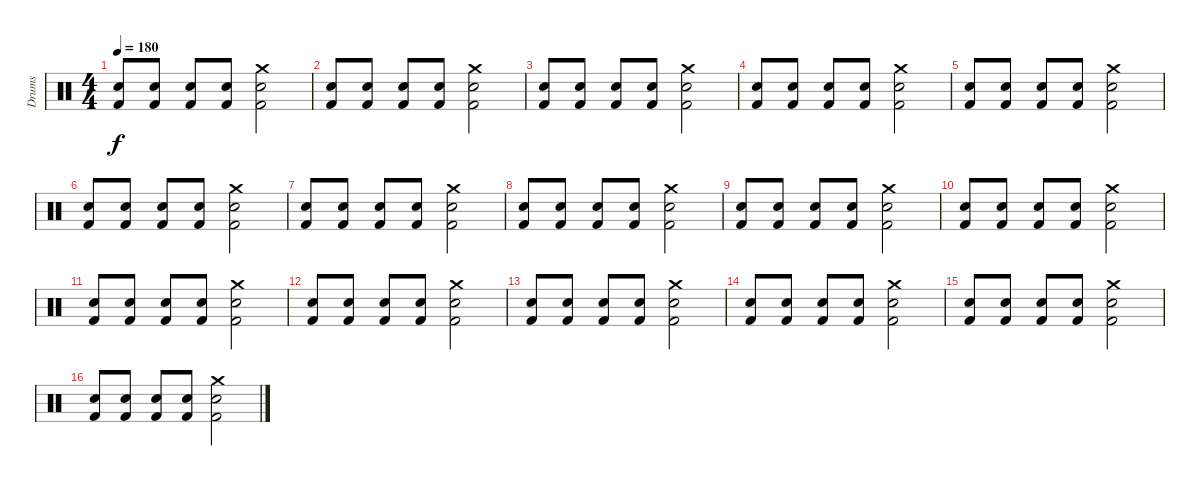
\track ("Drums" "Drums") {instrument percussion}
\staff {score}
\articulation defaults
\ts (4 4)
\tempo 180
\clef neutral
\ks c
("Snare (hit) 2" "Kick (hit) 2").8{dy f} ("Snare (hit) 2" "Kick (hit) 2").8 ("Snare (hit) 2" "Kick (hit) 2").8 ("Snare (hit) 2" "Kick (hit) 2").8 ("Snare (hit) 2" "Crash medium (hit)" "Kick (hit) 2").2 |
("Snare (hit) 2" "Kick (hit) 2").8 ("Snare (hit) 2" "Kick (hit) 2").8 ("Snare (hit) 2" "Kick (hit) 2").8 ("Snare (hit) 2" "Kick (hit) 2").8 ("Snare (hit) 2" "Crash medium (hit)" "Kick (hit) 2").2 |
("Snare (hit) 2" "Kick (hit) 2").8 ("Snare (hit) 2" "Kick (hit) 2").8 ("Snare (hit) 2" "Kick (hit) 2").8 ("Snare (hit) 2" "Kick (hit) 2").8 ("Snare (hit) 2" "Crash medium (hit)" "Kick (hit) 2").2 |
("Snare (hit) 2" "Kick (hit) 2").8 ("Snare (hit) 2" "Kick (hit) 2").8 ("Snare (hit) 2" "Kick (hit) 2").8 ("Snare (hit) 2" "Kick (hit) 2").8 ("Snare (hit) 2" "Crash medium (hit)" "Kick (hit) 2").2 |
("Snare (hit) 2" "Kick (hit) 2").8 ("Snare (hit) 2" "Kick (hit) 2").8 ("Snare (hit) 2" "Kick (hit) 2").8 ("Snare (hit) 2" "Kick (hit) 2").8 ("Snare (hit) 2" "Crash medium (hit)" "Kick (hit) 2").2 |
("Snare (hit) 2" "Kick (hit) 2").8 ("Snare (hit) 2" "Kick (hit) 2").8 ("Snare (hit) 2" "Kick (hit) 2").8 ("Snare (hit) 2" "Kick (hit) 2").8 ("Snare (hit) 2" "Crash medium (hit)" "Kick (hit) 2").2 |
("Snare (hit) 2" "Kick (hit) 2").8 ("Snare (hit) 2" "Kick (hit) 2").8 ("Snare (hit) 2" "Kick (hit) 2").8 ("Snare (hit) 2" "Kick (hit) 2").8 ("Snare (hit) 2" "Crash medium (hit)" "Kick (hit) 2").2 |
("Snare (hit) 2" "Kick (hit) 2").8 ("Snare (hit) 2" "Kick (hit) 2").8 ("Snare (hit) 2" "Kick (hit) 2").8 ("Snare (hit) 2" "Kick (hit) 2").8 ("Snare (hit) 2" "Crash medium (hit)" "Kick (hit) 2").2 |
("Snare (hit) 2" "Kick (hit) 2").8 ("Snare (hit) 2" "Kick (hit) 2").8 ("Snare (hit) 2" "Kick (hit) 2").8 ("Snare (hit) 2" "Kick (hit) 2").8 ("Snare (hit) 2" "Crash medium (hit)" "Kick (hit) 2").2 |
("Snare (hit) 2" "Kick (hit) 2").8 ("Snare (hit) 2" "Kick (hit) 2").8 ("Snare (hit) 2" "Kick (hit) 2").8 ("Snare (hit) 2" "Kick (hit) 2").8 ("Snare (hit) 2" "Crash medium (hit)" "Kick (hit) 2").2 |
("Snare (hit) 2" "Kick (hit) 2").8 ("Snare (hit) 2" "Kick (hit) 2").8 ("Snare (hit) 2" "Kick (hit) 2").8 ("Snare (hit) 2" "Kick (hit) 2").8 ("Snare (hit) 2" "Crash medium (hit)" "Kick (hit) 2").2 |
("Snare (hit) 2" "Kick (hit) 2").8 ("Snare (hit) 2" "Kick (hit) 2").8 ("Snare (hit) 2" "Kick (hit) 2").8 ("Snare (hit) 2" "Kick (hit) 2").8 ("Snare (hit) 2" "Crash medium (hit)" "Kick (hit) 2").2 |
("Snare (hit) 2" "Kick (hit) 2").8 ("Snare (hit) 2" "Kick (hit) 2").8 ("Snare (hit) 2" "Kick (hit) 2").8 ("Snare (hit) 2" "Kick (hit) 2").8 ("Snare (hit) 2" "Crash medium (hit)" "Kick (hit) 2").2 |
("Snare (hit) 2" "Kick (hit) 2").8 ("Snare (hit) 2" "Kick (hit) 2").8 ("Snare (hit) 2" "Kick (hit) 2").8 ("Snare (hit) 2" "Kick (hit) 2").8 ("Snare (hit) 2" "Crash medium (hit)" "Kick (hit) 2").2 |
("Snare (hit) 2" "Kick (hit) 2").8 ("Snare (hit) 2" "Kick (hit) 2").8 ("Snare (hit) 2" "Kick (hit) 2").8 ("Snare (hit) 2" "Kick (hit) 2").8 ("Snare (hit) 2" "Crash medium (hit)" "Kick (hit) 2").2 |
("Snare (hit) 2" "Kick (hit) 2").8 ("Snare (hit) 2" "Kick (hit) 2").8 ("Snare (hit) 2" "Kick (hit) 2").8 ("Snare (hit) 2" "Kick (hit) 2").8 ("Snare (hit) 2" "Crash medium (hit)" "Kick (hit) 2").2
